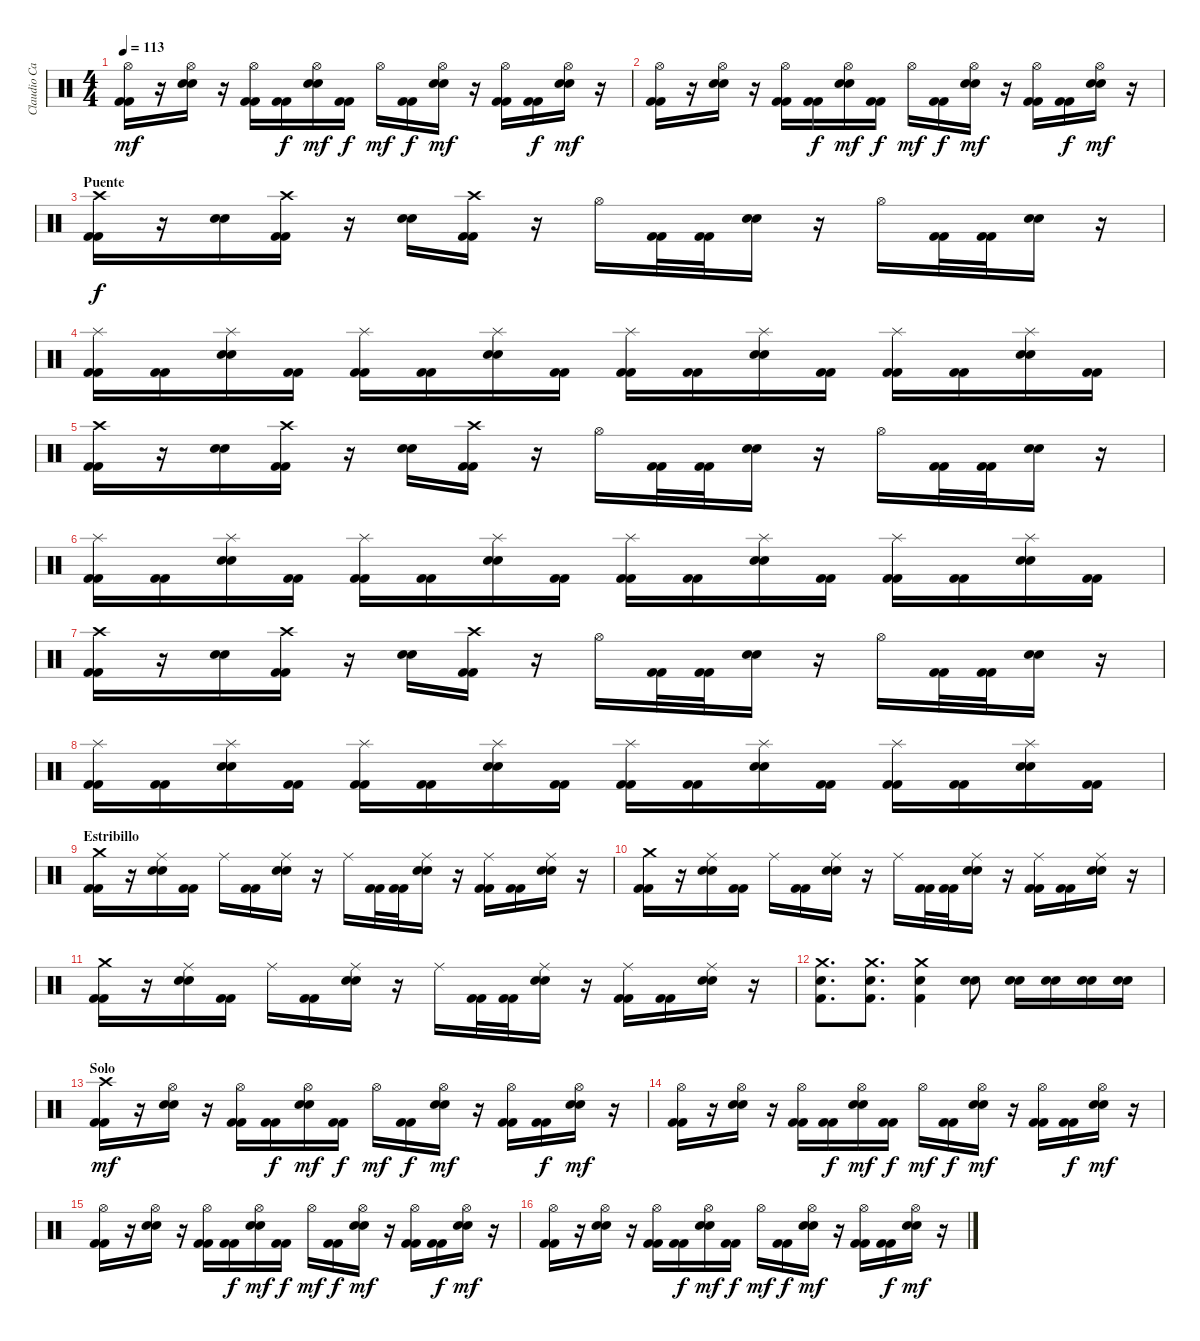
\track ("Claudio Cardaci (bateria)" "Claudio Ca") {instrument percussion}
\staff {score}
\articulation defaults
\ts (4 4)
\tempo 113
\clef neutral
\ks c
("Hi-Hat (open)" "Kick (hit) 2" "Kick (hit) 2").16{dy mf} r.16 ("Hi-Hat (open)" "Snare (hit) 2" "Snare (hit) 2").16 r.16 ("Hi-Hat (open)" "Kick (hit) 2" "Kick (hit) 2").16 ("Kick (hit) 2" "Kick (hit) 2").16{dy f} ("Hi-Hat (open)" "Snare (hit) 2" "Snare (hit) 2").16{dy mf} ("Kick (hit) 2" "Kick (hit) 2").16{dy f} "Hi-Hat (open)".16{dy mf} ("Kick (hit) 2" "Kick (hit) 2").16{dy f} ("Hi-Hat (open)" "Snare (hit) 2" "Snare (hit) 2").16{dy mf} r.16 ("Hi-Hat (open)" "Kick (hit) 2" "Kick (hit) 2").16 ("Kick (hit) 2" "Kick (hit) 2").16{dy f} ("Hi-Hat (open)" "Snare (hit) 2" "Snare (hit) 2").16{dy mf} r.16 |
("Hi-Hat (open)" "Kick (hit) 2" "Kick (hit) 2").16 r.16 ("Hi-Hat (open)" "Snare (hit) 2" "Snare (hit) 2").16 r.16 ("Hi-Hat (open)" "Kick (hit) 2" "Kick (hit) 2").16 ("Kick (hit) 2" "Kick (hit) 2").16{dy f} ("Hi-Hat (open)" "Snare (hit) 2" "Snare (hit) 2").16{dy mf} ("Kick (hit) 2" "Kick (hit) 2").16{dy f} "Hi-Hat (open)".16{dy mf} ("Kick (hit) 2" "Kick (hit) 2").16{dy f} ("Hi-Hat (open)" "Snare (hit) 2" "Snare (hit) 2").16{dy mf} r.16 ("Hi-Hat (open)" "Kick (hit) 2" "Kick (hit) 2").16 ("Kick (hit) 2" "Kick (hit) 2").16{dy f} ("Hi-Hat (open)" "Snare (hit) 2" "Snare (hit) 2").16{dy mf} r.16 |
\section ("" "Puente")
("Crash high (hit)" "Kick (hit) 2" "Kick (hit) 2").16{dy f} r.16 ("Snare (hit) 2" "Snare (hit) 2").16 ("Crash high (hit)" "Kick (hit) 2" "Kick (hit) 2").16 r.16 ("Snare (hit) 2" "Snare (hit) 2").16 ("Crash high (hit)" "Kick (hit) 2" "Kick (hit) 2").16 r.16 "Hi-Hat (open)".16 ("Kick (hit) 2" "Kick (hit) 2").32 ("Kick (hit) 2" "Kick (hit) 2").32 ("Snare (hit) 2" "Snare (hit) 2").16 r.16 "Hi-Hat (open)".16 ("Kick (hit) 2" "Kick (hit) 2").32 ("Kick (hit) 2" "Kick (hit) 2").32 ("Snare (hit) 2" "Snare (hit) 2").16 r.16 |
("Splash (hit)" "Kick (hit) 2" "Kick (hit) 2").16 ("Kick (hit) 2" "Kick (hit) 2").16 ("Splash (hit)" "Snare (hit) 2" "Snare (hit) 2").16 ("Kick (hit) 2" "Kick (hit) 2").16 ("Splash (hit)" "Kick (hit) 2" "Kick (hit) 2").16 ("Kick (hit) 2" "Kick (hit) 2").16 ("Splash (hit)" "Snare (hit) 2" "Snare (hit) 2").16 ("Kick (hit) 2" "Kick (hit) 2").16 ("Splash (hit)" "Kick (hit) 2" "Kick (hit) 2").16 ("Kick (hit) 2" "Kick (hit) 2").16 ("Splash (hit)" "Snare (hit) 2" "Snare (hit) 2").16 ("Kick (hit) 2" "Kick (hit) 2").16 ("Splash (hit)" "Kick (hit) 2" "Kick (hit) 2").16 ("Kick (hit) 2" "Kick (hit) 2").16 ("Splash (hit)" "Snare (hit) 2" "Snare (hit) 2").16 ("Kick (hit) 2" "Kick (hit) 2").16 |
("Crash high (hit)" "Kick (hit) 2" "Kick (hit) 2").16 r.16 ("Snare (hit) 2" "Snare (hit) 2").16 ("Crash high (hit)" "Kick (hit) 2" "Kick (hit) 2").16 r.16 ("Snare (hit) 2" "Snare (hit) 2").16 ("Crash high (hit)" "Kick (hit) 2" "Kick (hit) 2").16 r.16 "Hi-Hat (open)".16 ("Kick (hit) 2" "Kick (hit) 2").32 ("Kick (hit) 2" "Kick (hit) 2").32 ("Snare (hit) 2" "Snare (hit) 2").16 r.16 "Hi-Hat (open)".16 ("Kick (hit) 2" "Kick (hit) 2").32 ("Kick (hit) 2" "Kick (hit) 2").32 ("Snare (hit) 2" "Snare (hit) 2").16 r.16 |
("Splash (hit)" "Kick (hit) 2" "Kick (hit) 2").16 ("Kick (hit) 2" "Kick (hit) 2").16 ("Splash (hit)" "Snare (hit) 2" "Snare (hit) 2").16 ("Kick (hit) 2" "Kick (hit) 2").16 ("Splash (hit)" "Kick (hit) 2" "Kick (hit) 2").16 ("Kick (hit) 2" "Kick (hit) 2").16 ("Splash (hit)" "Snare (hit) 2" "Snare (hit) 2").16 ("Kick (hit) 2" "Kick (hit) 2").16 ("Splash (hit)" "Kick (hit) 2" "Kick (hit) 2").16 ("Kick (hit) 2" "Kick (hit) 2").16 ("Splash (hit)" "Snare (hit) 2" "Snare (hit) 2").16 ("Kick (hit) 2" "Kick (hit) 2").16 ("Splash (hit)" "Kick (hit) 2" "Kick (hit) 2").16 ("Kick (hit) 2" "Kick (hit) 2").16 ("Splash (hit)" "Snare (hit) 2" "Snare (hit) 2").16 ("Kick (hit) 2" "Kick (hit) 2").16 |
("Crash high (hit)" "Kick (hit) 2" "Kick (hit) 2").16 r.16 ("Snare (hit) 2" "Snare (hit) 2").16 ("Crash high (hit)" "Kick (hit) 2" "Kick (hit) 2").16 r.16 ("Snare (hit) 2" "Snare (hit) 2").16 ("Crash high (hit)" "Kick (hit) 2" "Kick (hit) 2").16 r.16 "Hi-Hat (open)".16 ("Kick (hit) 2" "Kick (hit) 2").32 ("Kick (hit) 2" "Kick (hit) 2").32 ("Snare (hit) 2" "Snare (hit) 2").16 r.16 "Hi-Hat (open)".16 ("Kick (hit) 2" "Kick (hit) 2").32 ("Kick (hit) 2" "Kick (hit) 2").32 ("Snare (hit) 2" "Snare (hit) 2").16 r.16 |
("Splash (hit)" "Kick (hit) 2" "Kick (hit) 2").16 ("Kick (hit) 2" "Kick (hit) 2").16 ("Splash (hit)" "Snare (hit) 2" "Snare (hit) 2").16 ("Kick (hit) 2" "Kick (hit) 2").16 ("Splash (hit)" "Kick (hit) 2" "Kick (hit) 2").16 ("Kick (hit) 2" "Kick (hit) 2").16 ("Splash (hit)" "Snare (hit) 2" "Snare (hit) 2").16 ("Kick (hit) 2" "Kick (hit) 2").16 ("Splash (hit)" "Kick (hit) 2" "Kick (hit) 2").16 ("Kick (hit) 2" "Kick (hit) 2").16 ("Splash (hit)" "Snare (hit) 2" "Snare (hit) 2").16 ("Kick (hit) 2" "Kick (hit) 2").16 ("Splash (hit)" "Kick (hit) 2" "Kick (hit) 2").16 ("Kick (hit) 2" "Kick (hit) 2").16 ("Splash (hit)" "Snare (hit) 2" "Snare (hit) 2").16 ("Kick (hit) 2" "Kick (hit) 2").16 |
\section ("" "Estribillo")
("Crash medium (hit)" "Kick (hit) 2" "Kick (hit) 2").16 r.16 ("Ride (middle)" "Snare (hit) 2" "Snare (hit) 2").16 ("Kick (hit) 2" "Kick (hit) 2").16 "Ride (middle)".16 ("Kick (hit) 2" "Kick (hit) 2").16 ("Ride (middle)" "Snare (hit) 2" "Snare (hit) 2").16 r.16 "Ride (middle)".16 ("Kick (hit) 2" "Kick (hit) 2").32 ("Kick (hit) 2" "Kick (hit) 2").32 ("Ride (middle)" "Snare (hit) 2" "Snare (hit) 2").16 r.16 ("Ride (middle)" "Kick (hit) 2" "Kick (hit) 2").16 ("Kick (hit) 2" "Kick (hit) 2").16 ("Ride (middle)" "Snare (hit) 2" "Snare (hit) 2").16 r.16 |
("Crash medium (hit)" "Kick (hit) 2" "Kick (hit) 2").16 r.16 ("Ride (middle)" "Snare (hit) 2" "Snare (hit) 2").16 ("Kick (hit) 2" "Kick (hit) 2").16 "Ride (middle)".16 ("Kick (hit) 2" "Kick (hit) 2").16 ("Ride (middle)" "Snare (hit) 2" "Snare (hit) 2").16 r.16 "Ride (middle)".16 ("Kick (hit) 2" "Kick (hit) 2").32 ("Kick (hit) 2" "Kick (hit) 2").32 ("Ride (middle)" "Snare (hit) 2" "Snare (hit) 2").16 r.16 ("Ride (middle)" "Kick (hit) 2" "Kick (hit) 2").16 ("Kick (hit) 2" "Kick (hit) 2").16 ("Ride (middle)" "Snare (hit) 2" "Snare (hit) 2").16 r.16 |
("Crash medium (hit)" "Kick (hit) 2" "Kick (hit) 2").16 r.16 ("Ride (middle)" "Snare (hit) 2" "Snare (hit) 2").16 ("Kick (hit) 2" "Kick (hit) 2").16 "Ride (middle)".16 ("Kick (hit) 2" "Kick (hit) 2").16 ("Ride (middle)" "Snare (hit) 2" "Snare (hit) 2").16 r.16 "Ride (middle)".16 ("Kick (hit) 2" "Kick (hit) 2").32 ("Kick (hit) 2" "Kick (hit) 2").32 ("Ride (middle)" "Snare (hit) 2" "Snare (hit) 2").16 r.16 ("Ride (middle)" "Kick (hit) 2" "Kick (hit) 2").16 ("Kick (hit) 2" "Kick (hit) 2").16 ("Ride (middle)" "Snare (hit) 2" "Snare (hit) 2").16 r.16 |
("Crash medium (hit)" "Snare (hit) 2" "Kick (hit) 2").8{d} ("Crash medium (hit)" "Snare (hit) 2" "Kick (hit) 2").8{d} ("Crash medium (hit)" "Snare (hit) 2" "Kick (hit) 2").4 ("Electric Snare (hit)" "Electric Snare (hit)").8 ("Snare (hit) 2" "Snare (hit) 2").16 ("Snare (hit) 2" "Snare (hit) 2").16 ("Snare (hit) 2" "Snare (hit) 2").16 ("Snare (hit) 2" "Snare (hit) 2").16 |
\section ("" "Solo")
("Crash high (hit)" "Kick (hit) 2" "Kick (hit) 2").16{dy mf} r.16 ("Hi-Hat (open)" "Snare (hit) 2" "Snare (hit) 2").16 r.16 ("Hi-Hat (open)" "Kick (hit) 2" "Kick (hit) 2").16 ("Kick (hit) 2" "Kick (hit) 2").16{dy f} ("Hi-Hat (open)" "Snare (hit) 2" "Snare (hit) 2").16{dy mf} ("Kick (hit) 2" "Kick (hit) 2").16{dy f} "Hi-Hat (open)".16{dy mf} ("Kick (hit) 2" "Kick (hit) 2").16{dy f} ("Hi-Hat (open)" "Snare (hit) 2" "Snare (hit) 2").16{dy mf} r.16 ("Hi-Hat (open)" "Kick (hit) 2" "Kick (hit) 2").16 ("Kick (hit) 2" "Kick (hit) 2").16{dy f} ("Hi-Hat (open)" "Snare (hit) 2" "Snare (hit) 2").16{dy mf} r.16 |
("Hi-Hat (open)" "Kick (hit) 2" "Kick (hit) 2").16 r.16 ("Hi-Hat (open)" "Snare (hit) 2" "Snare (hit) 2").16 r.16 ("Hi-Hat (open)" "Kick (hit) 2" "Kick (hit) 2").16 ("Kick (hit) 2" "Kick (hit) 2").16{dy f} ("Hi-Hat (open)" "Snare (hit) 2" "Snare (hit) 2").16{dy mf} ("Kick (hit) 2" "Kick (hit) 2").16{dy f} "Hi-Hat (open)".16{dy mf} ("Kick (hit) 2" "Kick (hit) 2").16{dy f} ("Hi-Hat (open)" "Snare (hit) 2" "Snare (hit) 2").16{dy mf} r.16 ("Hi-Hat (open)" "Kick (hit) 2" "Kick (hit) 2").16 ("Kick (hit) 2" "Kick (hit) 2").16{dy f} ("Hi-Hat (open)" "Snare (hit) 2" "Snare (hit) 2").16{dy mf} r.16 |
("Hi-Hat (open)" "Kick (hit) 2" "Kick (hit) 2").16 r.16 ("Hi-Hat (open)" "Snare (hit) 2" "Snare (hit) 2").16 r.16 ("Hi-Hat (open)" "Kick (hit) 2" "Kick (hit) 2").16 ("Kick (hit) 2" "Kick (hit) 2").16{dy f} ("Hi-Hat (open)" "Snare (hit) 2" "Snare (hit) 2").16{dy mf} ("Kick (hit) 2" "Kick (hit) 2").16{dy f} "Hi-Hat (open)".16{dy mf} ("Kick (hit) 2" "Kick (hit) 2").16{dy f} ("Hi-Hat (open)" "Snare (hit) 2" "Snare (hit) 2").16{dy mf} r.16 ("Hi-Hat (open)" "Kick (hit) 2" "Kick (hit) 2").16 ("Kick (hit) 2" "Kick (hit) 2").16{dy f} ("Hi-Hat (open)" "Snare (hit) 2" "Snare (hit) 2").16{dy mf} r.16 |
("Hi-Hat (open)" "Kick (hit) 2" "Kick (hit) 2").16 r.16 ("Hi-Hat (open)" "Snare (hit) 2" "Snare (hit) 2").16 r.16 ("Hi-Hat (open)" "Kick (hit) 2" "Kick (hit) 2").16 ("Kick (hit) 2" "Kick (hit) 2").16{dy f} ("Hi-Hat (open)" "Snare (hit) 2" "Snare (hit) 2").16{dy mf} ("Kick (hit) 2" "Kick (hit) 2").16{dy f} "Hi-Hat (open)".16{dy mf} ("Kick (hit) 2" "Kick (hit) 2").16{dy f} ("Hi-Hat (open)" "Snare (hit) 2" "Snare (hit) 2").16{dy mf} r.16 ("Hi-Hat (open)" "Kick (hit) 2" "Kick (hit) 2").16 ("Kick (hit) 2" "Kick (hit) 2").16{dy f} ("Hi-Hat (open)" "Snare (hit) 2" "Snare (hit) 2").16{dy mf} r.16
